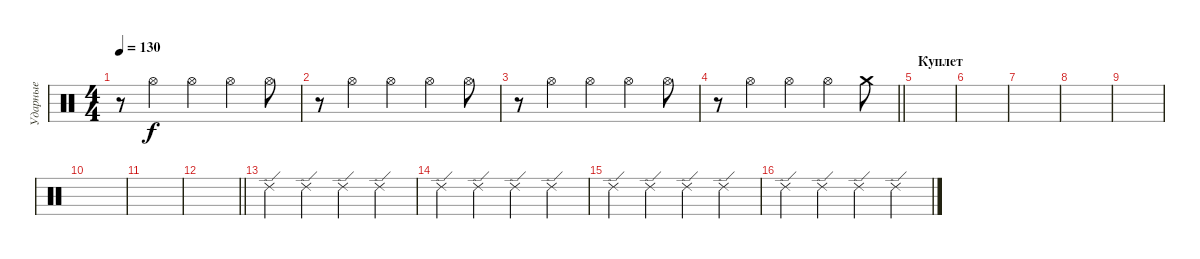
\track ("Ударные" "Ударные") {instrument percussion}
\staff {score}
\articulation defaults
\ts (4 4)
\tempo 130
\clef neutral
\ks c
r.8{dy f} "Hi-Hat (open)".4 "Hi-Hat (open)".4 "Hi-Hat (open)".4 "Hi-Hat (open)".8 |
r.8 "Hi-Hat (open)".4 "Hi-Hat (open)".4 "Hi-Hat (open)".4 "Hi-Hat (open)".8 |
r.8 "Hi-Hat (open)".4 "Hi-Hat (open)".4 "Hi-Hat (open)".4 "Hi-Hat (open)".8 |
\barLineRight lightlight
r.8 "Hi-Hat (open)".4 "Hi-Hat (open)".4 "Hi-Hat (open)".4 "Crash medium (hit)".8 |
\section ("" "Куплет")
|
|
|
|
|
|
|
\barLineRight lightlight
|
"Ride (edge) 2".4 "Ride (edge) 2".4 "Ride (edge) 2".4 "Ride (edge) 2".4 |
"Ride (edge) 2".4 "Ride (edge) 2".4 "Ride (edge) 2".4 "Ride (edge) 2".4 |
"Ride (edge) 2".4 "Ride (edge) 2".4 "Ride (edge) 2".4 "Ride (edge) 2".4 |
"Ride (edge) 2".4 "Ride (edge) 2".4 "Ride (edge) 2".4 "Ride (edge) 2".4
